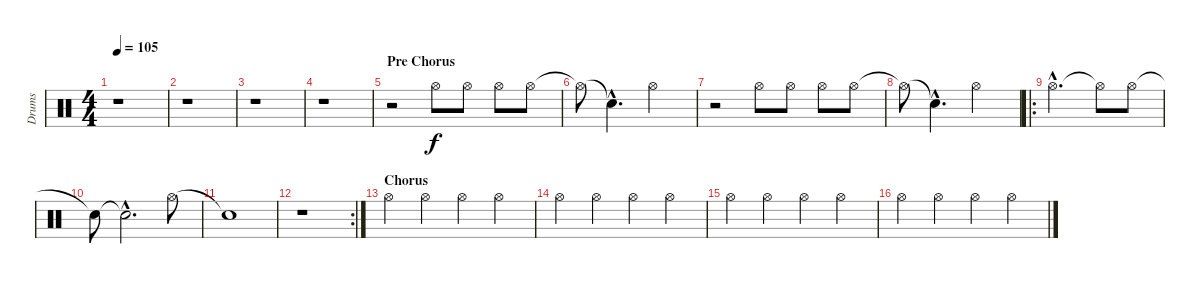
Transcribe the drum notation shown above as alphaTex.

\track ("Drums" "Drums") {instrument percussion}
\staff {score}
\articulation defaults
\ts (4 4)
\tempo 105
\clef neutral
\ks c
r.1{dy f} |
r.1 |
r.1 |
r.1 |
\section ("" "Pre Chorus")
r.2 "Hi-Hat (open)".8 "Hi-Hat (open)".8 "Hi-Hat (open)".8 "Hi-Hat (open)".8 |
"Hi-Hat (open)"{t}.8 "Snare (hit)"{hac t}.4{d} "Hi-Hat (open)".2 |
r.2 "Hi-Hat (open)".8 "Hi-Hat (open)".8 "Hi-Hat (open)".8 "Hi-Hat (open)".8 |
"Hi-Hat (open)"{t}.8 "Snare (hit)"{hac t}.4{d} "Hi-Hat (open)".2 |
\ro "Hi-Hat (open)"{hac}.2{d} "Hi-Hat (open)"{t}.8 "Hi-Hat (open)".8
|
"Snare (hit)"{t}.8 "Snare (hit)"{hac t}.2{d} "Hi-Hat (open)".8 |
"Snare (hit)"{t}.1 |
\rc 2
r.1 |
\section ("" "Chorus")
"Hi-Hat (open)".4 "Hi-Hat (open)".4 "Hi-Hat (open)".4 "Hi-Hat (open)".4 |
"Hi-Hat (open)".4 "Hi-Hat (open)".4 "Hi-Hat (open)".4 "Hi-Hat (open)".4 |
"Hi-Hat (open)".4 "Hi-Hat (open)".4 "Hi-Hat (open)".4 "Hi-Hat (open)".4 |
"Hi-Hat (open)".4 "Hi-Hat (open)".4 "Hi-Hat (open)".4 "Hi-Hat (open)".4
